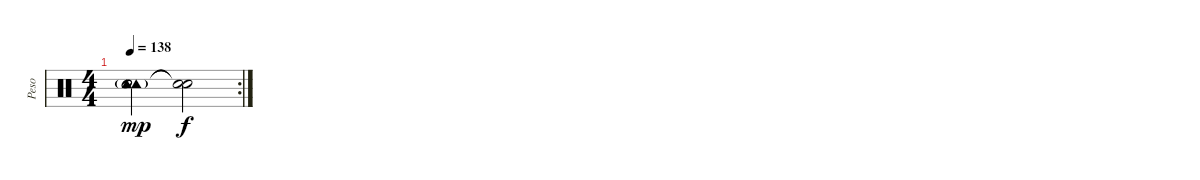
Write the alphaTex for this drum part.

\track ("Peso" "Peso") {instrument percussion}
\staff {score}
\articulation defaults
\rc 2
\ts (4 4)
\tempo 138
\clef neutral
\ks c
("Tambourine (hit)"{g} "Tambourine (hit)"{g} "Electric Snare (hit)"{g} "Electric Snare (hit)"{g}).2{dy mp} ("Snare (hit)"{t} "Snare (hit)"{t}).2{dy f}
